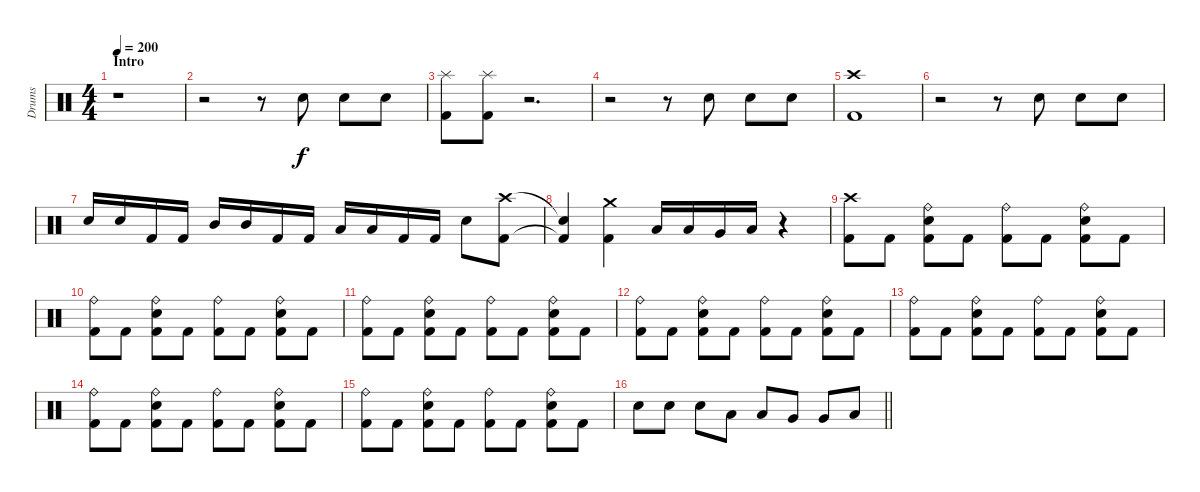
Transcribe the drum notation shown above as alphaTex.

\track ("Drums" "Drums") {instrument percussion}
\staff {score}
\articulation defaults
\ts (4 4)
\section ("" "Intro")
\tempo 200
\clef neutral
\ks c
r.1{dy f} |
r.2 r.8 "Electric Snare (hit)".8 "Electric Snare (hit)".8 "Electric Snare (hit)".8 |
("Kick (hit) 2" "Splash (hit)").8 ("Kick (hit) 2" "Splash (hit)").8 r.2{d} |
r.2 r.8 "Electric Snare (hit)".8 "Electric Snare (hit)".8 "Electric Snare (hit)".8 |
("Kick (hit) 2" "Crash high (hit)").1 |
r.2 r.8 "Electric Snare (hit)".8 "Electric Snare (hit)".8 "Electric Snare (hit)".8 |
"Electric Snare (hit)".16 "Electric Snare (hit)".16 "Kick (hit) 2".16 "Kick (hit) 2".16 "Mid Tom (hit)".16 "Mid Tom (hit)".16 "Kick (hit) 2".16 "Kick (hit) 2".16 "Low Tom (hit)".16 "Low Tom (hit)".16 "Kick (hit) 2".16 "Kick (hit) 2".16 "Electric Snare (hit)".8 ("Kick (hit) 2" "Crash high (hit)").8 |
("Kick (hit) 2"{t} "Snare (hit)"{t}).4 ("Kick (hit) 2" "Crash medium (hit)").4 "Low Tom (hit)".16 "Low Tom (hit)".16 "Very Low Tom (hit)".16 "Low Floor Tom (hit)".16 r.4 |
("Kick (hit) 2" "Crash high (hit)").8 "Kick (hit) 2".8 ("Kick (hit) 2" "Ride (bell)" "Electric Snare (hit)").8 "Kick (hit) 2".8 ("Kick (hit) 2" "Ride (bell)").8 "Kick (hit) 2".8 ("Kick (hit) 2" "Ride (bell)" "Electric Snare (hit)").8 "Kick (hit) 2".8 |
("Kick (hit) 2" "Ride (bell)").8 "Kick (hit) 2".8 ("Kick (hit) 2" "Ride (bell)" "Electric Snare (hit)").8 "Kick (hit) 2".8 ("Kick (hit) 2" "Ride (bell)").8 "Kick (hit) 2".8 ("Kick (hit) 2" "Ride (bell)" "Electric Snare (hit)").8 "Kick (hit) 2".8 |
("Kick (hit) 2" "Ride (bell)").8 "Kick (hit) 2".8 ("Kick (hit) 2" "Ride (bell)" "Electric Snare (hit)").8 "Kick (hit) 2".8 ("Kick (hit) 2" "Ride (bell)").8 "Kick (hit) 2".8 ("Kick (hit) 2" "Ride (bell)" "Electric Snare (hit)").8 "Kick (hit) 2".8 |
("Kick (hit) 2" "Ride (bell)").8 "Kick (hit) 2".8 ("Kick (hit) 2" "Ride (bell)" "Electric Snare (hit)").8 "Kick (hit) 2".8 ("Kick (hit) 2" "Ride (bell)").8 "Kick (hit) 2".8 ("Kick (hit) 2" "Ride (bell)" "Electric Snare (hit)").8 "Kick (hit) 2".8 |
("Kick (hit) 2" "Ride (bell)").8 "Kick (hit) 2".8 ("Kick (hit) 2" "Ride (bell)" "Electric Snare (hit)").8 "Kick (hit) 2".8 ("Kick (hit) 2" "Ride (bell)").8 "Kick (hit) 2".8 ("Kick (hit) 2" "Ride (bell)" "Electric Snare (hit)").8 "Kick (hit) 2".8 |
("Kick (hit) 2" "Ride (bell)").8 "Kick (hit) 2".8 ("Kick (hit) 2" "Ride (bell)" "Electric Snare (hit)").8 "Kick (hit) 2".8 ("Kick (hit) 2" "Ride (bell)").8 "Kick (hit) 2".8 ("Kick (hit) 2" "Ride (bell)" "Electric Snare (hit)").8 "Kick (hit) 2".8 |
("Kick (hit) 2" "Ride (bell)").8 "Kick (hit) 2".8 ("Kick (hit) 2" "Ride (bell)" "Electric Snare (hit)").8 "Kick (hit) 2".8 ("Kick (hit) 2" "Ride (bell)").8 "Kick (hit) 2".8 ("Kick (hit) 2" "Ride (bell)" "Electric Snare (hit)").8 "Kick (hit) 2".8 |
\barLineRight lightlight "Electric Snare (hit)".8 "Electric Snare (hit)".8 "Electric Snare (hit)".8 "Low Tom (hit)".8 "Low Tom (hit)".8 "Very Low Tom (hit)".8 "Very Low Tom (hit)".8 "Low Floor Tom (hit)".8
